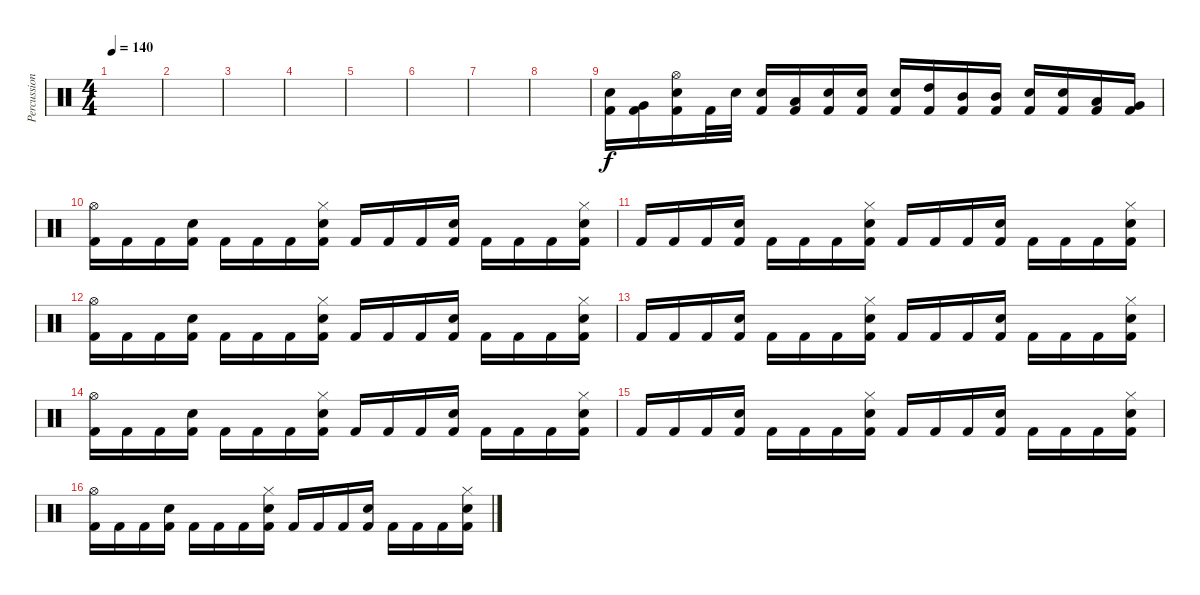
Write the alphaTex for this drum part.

\track ("Percussion" "Percussion") {instrument percussion}
\staff {score}
\articulation defaults
\ts (4 4)
\tempo 140
\clef neutral
\ks c
|
|
|
|
|
|
|
|
("Kick (hit) 2" "Electric Snare (hit)").16 ("Very Low Tom (hit)" "Kick (hit) 2").16 ("Hi-Hat (open)" "Electric Snare (hit)" "Kick (hit) 2").16 "Kick (hit) 2".32 "Electric Snare (hit)".32 ("Kick (hit) 2" "Electric Snare (hit)").16 ("Low Tom (hit)" "Kick (hit) 2").16 ("Kick (hit) 2" "Electric Snare (hit)").16 ("Electric Snare (hit)" "Kick (hit) 2").16 ("Electric Snare (hit)" "Kick (hit) 2").16 ("Kick (hit) 2" "High Tom (hit)").16 ("Mid Tom (hit)" "Kick (hit) 2").16 ("Kick (hit) 2" "Mid Tom (hit)").16 ("Electric Snare (hit)" "Kick (hit) 2").16 ("Electric Snare (hit)" "Kick (hit) 2").16 ("Kick (hit) 2" "Low Tom (hit)").16 ("Very Low Tom (hit)" "Kick (hit) 2").16 |
("Hi-Hat (open)" "Kick (hit) 2").16 "Kick (hit) 2".16 "Kick (hit) 2".16 ("Snare (hit) 2" "Kick (hit) 2").16 "Kick (hit) 2".16 "Kick (hit) 2".16 "Kick (hit) 2".16 ("Hi-Hat (closed)" "Snare (hit) 2" "Kick (hit) 2").16 "Kick (hit) 2".16 "Kick (hit) 2".16 "Kick (hit) 2".16 ("Snare (hit) 2" "Kick (hit) 2").16 "Kick (hit) 2".16 "Kick (hit) 2".16 "Kick (hit) 2".16 ("Hi-Hat (closed)" "Snare (hit) 2" "Kick (hit) 2").16 |
"Kick (hit) 2".16 "Kick (hit) 2".16 "Kick (hit) 2".16 ("Snare (hit) 2" "Kick (hit) 2").16 "Kick (hit) 2".16 "Kick (hit) 2".16 "Kick (hit) 2".16 ("Hi-Hat (closed)" "Snare (hit) 2" "Kick (hit) 2").16 "Kick (hit) 2".16 "Kick (hit) 2".16 "Kick (hit) 2".16 ("Snare (hit) 2" "Kick (hit) 2").16 "Kick (hit) 2".16 "Kick (hit) 2".16 "Kick (hit) 2".16 ("Hi-Hat (closed)" "Snare (hit) 2" "Kick (hit) 2").16 |
("Hi-Hat (open)" "Kick (hit) 2").16 "Kick (hit) 2".16 "Kick (hit) 2".16 ("Snare (hit) 2" "Kick (hit) 2").16 "Kick (hit) 2".16 "Kick (hit) 2".16 "Kick (hit) 2".16 ("Hi-Hat (closed)" "Snare (hit) 2" "Kick (hit) 2").16 "Kick (hit) 2".16 "Kick (hit) 2".16 "Kick (hit) 2".16 ("Snare (hit) 2" "Kick (hit) 2").16 "Kick (hit) 2".16 "Kick (hit) 2".16 "Kick (hit) 2".16 ("Hi-Hat (closed)" "Snare (hit) 2" "Kick (hit) 2").16 |
"Kick (hit) 2".16 "Kick (hit) 2".16 "Kick (hit) 2".16 ("Snare (hit) 2" "Kick (hit) 2").16 "Kick (hit) 2".16 "Kick (hit) 2".16 "Kick (hit) 2".16 ("Hi-Hat (closed)" "Snare (hit) 2" "Kick (hit) 2").16 "Kick (hit) 2".16 "Kick (hit) 2".16 "Kick (hit) 2".16 ("Snare (hit) 2" "Kick (hit) 2").16 "Kick (hit) 2".16 "Kick (hit) 2".16 "Kick (hit) 2".16 ("Hi-Hat (closed)" "Snare (hit) 2" "Kick (hit) 2").16 |
("Hi-Hat (open)" "Kick (hit) 2").16 "Kick (hit) 2".16 "Kick (hit) 2".16 ("Snare (hit) 2" "Kick (hit) 2").16 "Kick (hit) 2".16 "Kick (hit) 2".16 "Kick (hit) 2".16 ("Hi-Hat (closed)" "Snare (hit) 2" "Kick (hit) 2").16 "Kick (hit) 2".16 "Kick (hit) 2".16 "Kick (hit) 2".16 ("Snare (hit) 2" "Kick (hit) 2").16 "Kick (hit) 2".16 "Kick (hit) 2".16 "Kick (hit) 2".16 ("Hi-Hat (closed)" "Snare (hit) 2" "Kick (hit) 2").16 |
"Kick (hit) 2".16 "Kick (hit) 2".16 "Kick (hit) 2".16 ("Snare (hit) 2" "Kick (hit) 2").16 "Kick (hit) 2".16 "Kick (hit) 2".16 "Kick (hit) 2".16 ("Hi-Hat (closed)" "Snare (hit) 2" "Kick (hit) 2").16 "Kick (hit) 2".16 "Kick (hit) 2".16 "Kick (hit) 2".16 ("Snare (hit) 2" "Kick (hit) 2").16 "Kick (hit) 2".16 "Kick (hit) 2".16 "Kick (hit) 2".16 ("Hi-Hat (closed)" "Snare (hit) 2" "Kick (hit) 2").16 |
("Hi-Hat (open)" "Kick (hit) 2").16 "Kick (hit) 2".16 "Kick (hit) 2".16 ("Snare (hit) 2" "Kick (hit) 2").16 "Kick (hit) 2".16 "Kick (hit) 2".16 "Kick (hit) 2".16 ("Hi-Hat (closed)" "Snare (hit) 2" "Kick (hit) 2").16 "Kick (hit) 2".16 "Kick (hit) 2".16 "Kick (hit) 2".16 ("Snare (hit) 2" "Kick (hit) 2").16 "Kick (hit) 2".16 "Kick (hit) 2".16 "Kick (hit) 2".16 ("Hi-Hat (closed)" "Snare (hit) 2" "Kick (hit) 2").16
